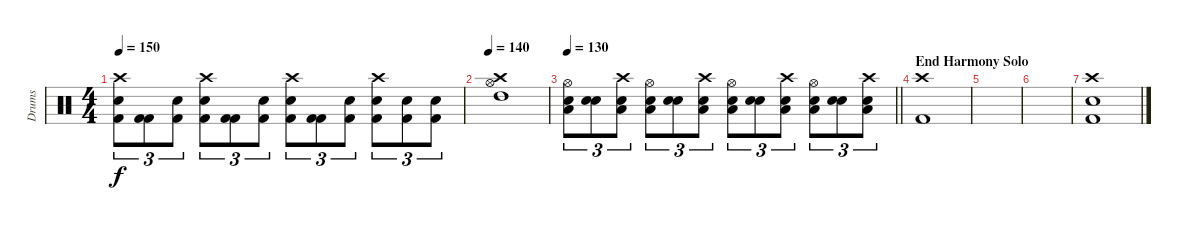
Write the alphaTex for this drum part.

\track ("Drums" "Drums") {instrument percussion}
\staff {score}
\articulation defaults
\ts (4 4)
\tempo 150
\clef neutral
\ks c
("Crash high (hit)" "Snare (hit) 2" "Kick (hit) 2").8{tu (3 2) dy f} ("Kick (hit) 2" "Kick (hit) 2").8{tu (3 2)} ("Snare (hit) 2" "Kick (hit) 2").8{tu (3 2)} ("Crash high (hit)" "Snare (hit) 2" "Kick (hit) 2").8{tu (3 2)} ("Kick (hit) 2" "Kick (hit) 2").8{tu (3 2)} ("Snare (hit) 2" "Kick (hit) 2").8{tu (3 2)} ("Crash high (hit)" "Snare (hit) 2" "Kick (hit) 2").8{tu (3 2)} ("Kick (hit) 2" "Kick (hit) 2").8{tu (3 2)} ("Snare (hit) 2" "Kick (hit) 2").8{tu (3 2)} ("Crash high (hit)" "Snare (hit) 2" "Kick (hit) 2").8{tu (3 2)} ("Snare (hit) 2" "Kick (hit) 2").8{tu (3 2)} ("Snare (hit) 2" "Kick (hit) 2").8{tu (3 2)} |
\tempo 140
("High Tom (hit)" "Hi-Hat (open)" "Crash high (hit)").1 |
\tempo 130
\barLineRight lightlight
("Snare (hit) 2" "Hi-Hat (open)" "Low Floor Tom (hit)").8{tu (3 2)} ("Snare (hit) 2" "Snare (hit) 2").8{tu (3 2)} ("Snare (hit) 2" "Crash high (hit)" "Low Floor Tom (hit)").8{tu (3 2)} ("Snare (hit) 2" "Hi-Hat (open)" "Low Floor Tom (hit)").8{tu (3 2)} ("Snare (hit) 2" "Snare (hit) 2").8{tu (3 2)} ("Snare (hit) 2" "Crash high (hit)" "Low Floor Tom (hit)").8{tu (3 2)} ("Snare (hit) 2" "Hi-Hat (open)" "Low Floor Tom (hit)").8{tu (3 2)} ("Snare (hit) 2" "Snare (hit) 2").8{tu (3 2)} ("Snare (hit) 2" "Crash high (hit)" "Low Floor Tom (hit)").8{tu (3 2)} ("Snare (hit) 2" "Hi-Hat (open)" "Low Floor Tom (hit)").8{tu (3 2)} ("Snare (hit) 2" "Snare (hit) 2").8{tu (3 2)} ("Snare (hit) 2" "Crash high (hit)" "Low Floor Tom (hit)").8{tu (3 2)} |
\section ("" "End Harmony Solo")
("Kick (hit) 2" "Crash high (hit)").1 |
|
|
("Kick (hit) 2" "Crash high (hit)" "Snare (hit) 2").1
